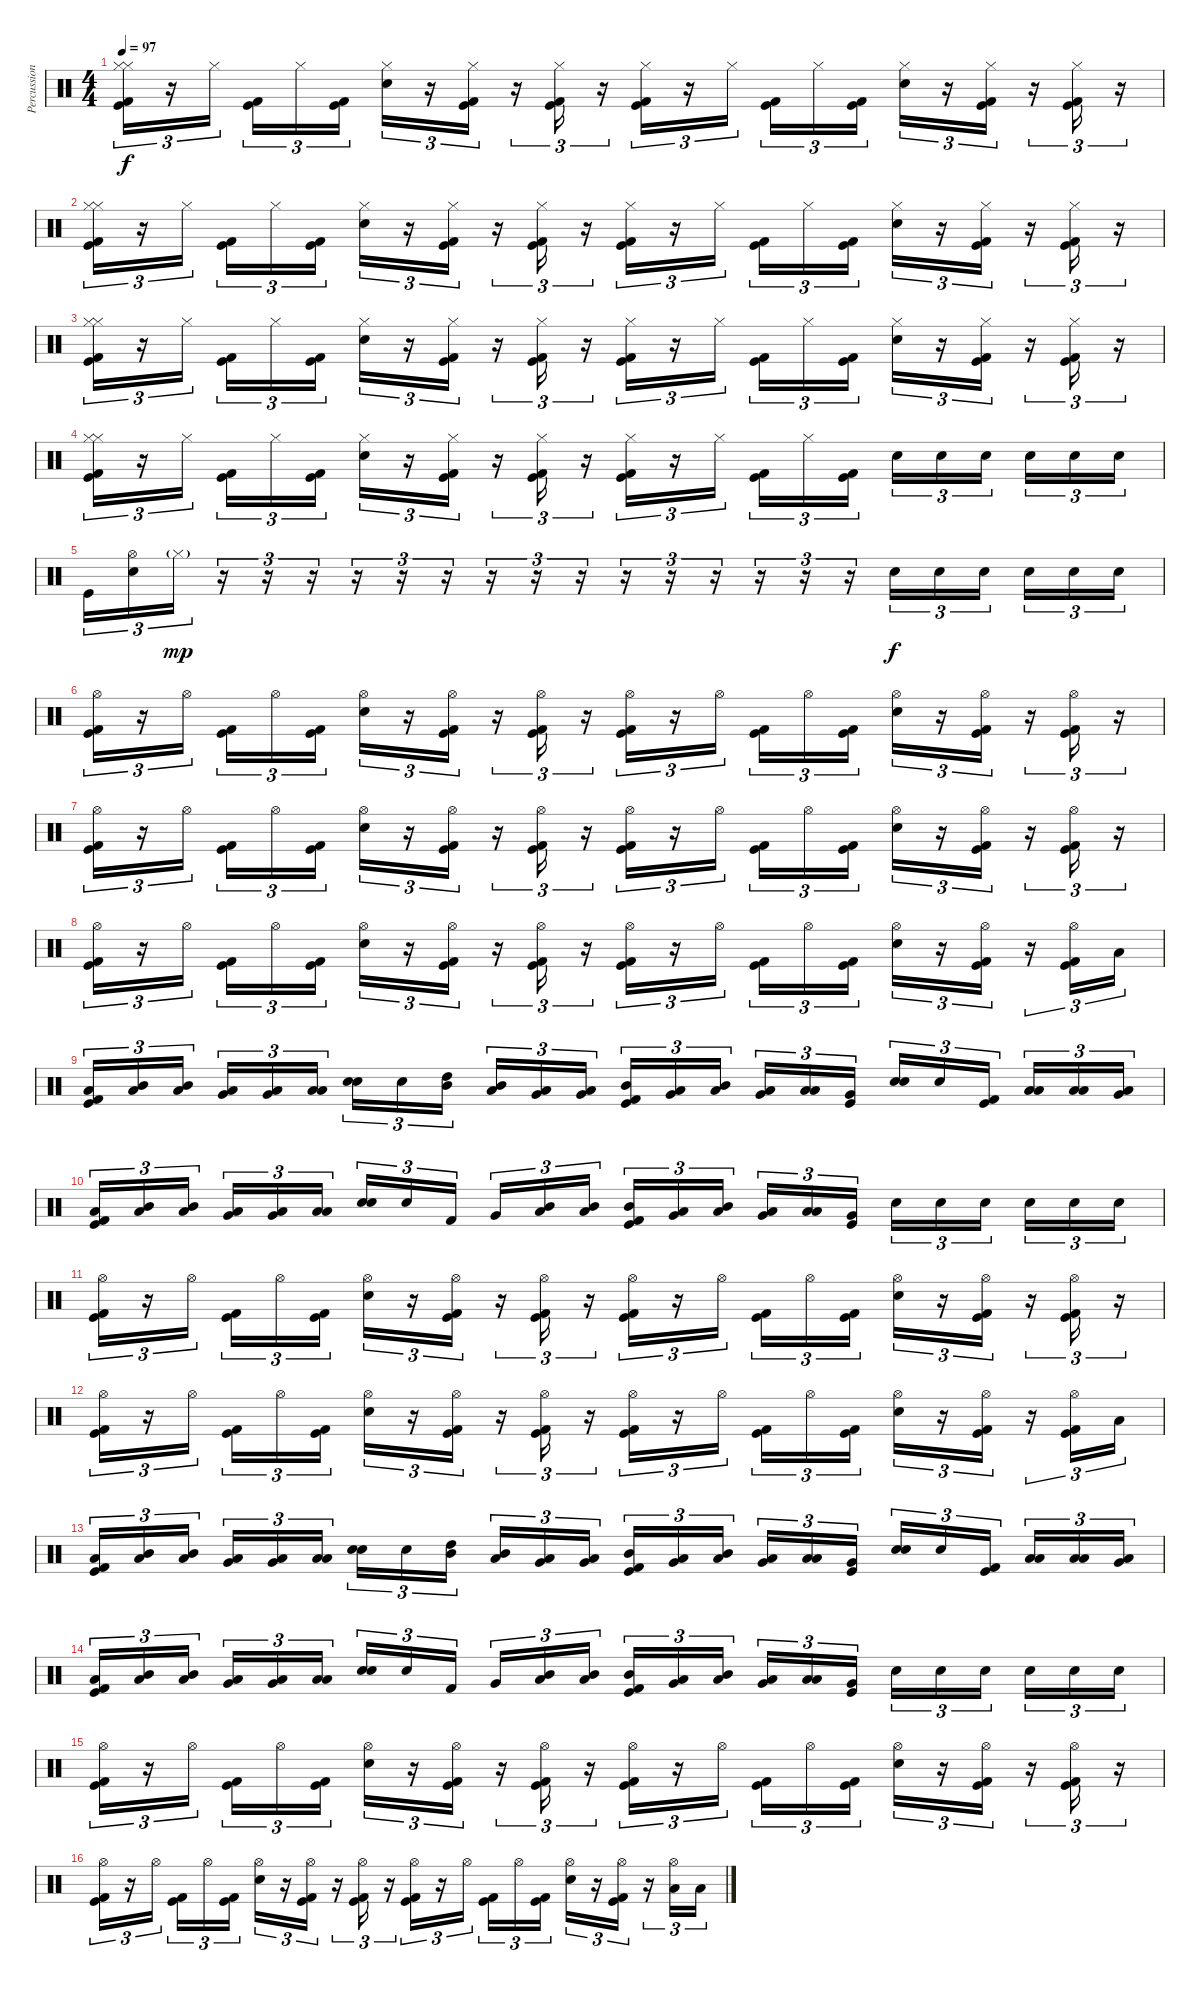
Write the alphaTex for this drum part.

\track ("Percussions" "Percussion") {instrument percussion}
\staff {score}
\articulation defaults
\ts (4 4)
\tempo 97
\clef neutral
\ks c
("Hi-Hat (closed)" "Hi-Hat (closed)" "Kick (hit) 2" "Kick (hit)").16{tu (3 2) dy f} r.16{tu (3 2)} "Hi-Hat (closed)".16{tu (3 2)} ("Kick (hit) 2" "Kick (hit)").16{tu (3 2)} "Hi-Hat (closed)".16{tu (3 2)} ("Kick (hit) 2" "Kick (hit)").16{tu (3 2)} ("Hi-Hat (closed)" "Electric Snare (hit)").16{tu (3 2)} r.16{tu (3 2)} ("Hi-Hat (closed)" "Kick (hit)" "Kick (hit) 2").16{tu (3 2)} r.16{tu (3 2)} ("Hi-Hat (closed)" "Kick (hit) 2" "Kick (hit)").16{tu (3 2)} r.16{tu (3 2)} ("Hi-Hat (closed)" "Kick (hit) 2" "Kick (hit)").16{tu (3 2)} r.16{tu (3 2)} "Hi-Hat (closed)".16{tu (3 2)} ("Kick (hit) 2" "Kick (hit)").16{tu (3 2)} "Hi-Hat (closed)".16{tu (3 2)} ("Kick (hit) 2" "Kick (hit)").16{tu (3 2)} ("Hi-Hat (closed)" "Electric Snare (hit)").16{tu (3 2)} r.16{tu (3 2)} ("Hi-Hat (closed)" "Kick (hit) 2" "Kick (hit)").16{tu (3 2)} r.16{tu (3 2)} ("Hi-Hat (closed)" "Kick (hit) 2" "Kick (hit)").16{tu (3 2)} r.16{tu (3 2)} |
("Hi-Hat (closed)" "Hi-Hat (closed)" "Kick (hit) 2" "Kick (hit)").16{tu (3 2)} r.16{tu (3 2)} "Hi-Hat (closed)".16{tu (3 2)} ("Kick (hit) 2" "Kick (hit)").16{tu (3 2)} "Hi-Hat (closed)".16{tu (3 2)} ("Kick (hit) 2" "Kick (hit)").16{tu (3 2)} ("Hi-Hat (closed)" "Electric Snare (hit)").16{tu (3 2)} r.16{tu (3 2)} ("Hi-Hat (closed)" "Kick (hit)" "Kick (hit) 2").16{tu (3 2)} r.16{tu (3 2)} ("Hi-Hat (closed)" "Kick (hit) 2" "Kick (hit)").16{tu (3 2)} r.16{tu (3 2)} ("Hi-Hat (closed)" "Kick (hit) 2" "Kick (hit)").16{tu (3 2)} r.16{tu (3 2)} "Hi-Hat (closed)".16{tu (3 2)} ("Kick (hit) 2" "Kick (hit)").16{tu (3 2)} "Hi-Hat (closed)".16{tu (3 2)} ("Kick (hit) 2" "Kick (hit)").16{tu (3 2)} ("Hi-Hat (closed)" "Electric Snare (hit)").16{tu (3 2)} r.16{tu (3 2)} ("Hi-Hat (closed)" "Kick (hit) 2" "Kick (hit)").16{tu (3 2)} r.16{tu (3 2)} ("Hi-Hat (closed)" "Kick (hit) 2" "Kick (hit)").16{tu (3 2)} r.16{tu (3 2)} |
("Hi-Hat (closed)" "Hi-Hat (closed)" "Kick (hit) 2" "Kick (hit)").16{tu (3 2)} r.16{tu (3 2)} "Hi-Hat (closed)".16{tu (3 2)} ("Kick (hit) 2" "Kick (hit)").16{tu (3 2)} "Hi-Hat (closed)".16{tu (3 2)} ("Kick (hit) 2" "Kick (hit)").16{tu (3 2)} ("Hi-Hat (closed)" "Electric Snare (hit)").16{tu (3 2)} r.16{tu (3 2)} ("Hi-Hat (closed)" "Kick (hit)" "Kick (hit) 2").16{tu (3 2)} r.16{tu (3 2)} ("Hi-Hat (closed)" "Kick (hit) 2" "Kick (hit)").16{tu (3 2)} r.16{tu (3 2)} ("Hi-Hat (closed)" "Kick (hit) 2" "Kick (hit)").16{tu (3 2)} r.16{tu (3 2)} "Hi-Hat (closed)".16{tu (3 2)} ("Kick (hit) 2" "Kick (hit)").16{tu (3 2)} "Hi-Hat (closed)".16{tu (3 2)} ("Kick (hit) 2" "Kick (hit)").16{tu (3 2)} ("Hi-Hat (closed)" "Electric Snare (hit)").16{tu (3 2)} r.16{tu (3 2)} ("Hi-Hat (closed)" "Kick (hit) 2" "Kick (hit)").16{tu (3 2)} r.16{tu (3 2)} ("Hi-Hat (closed)" "Kick (hit) 2" "Kick (hit)").16{tu (3 2)} r.16{tu (3 2)} |
("Hi-Hat (closed)" "Hi-Hat (closed)" "Kick (hit) 2" "Kick (hit)").16{tu (3 2)} r.16{tu (3 2)} "Hi-Hat (closed)".16{tu (3 2)} ("Kick (hit) 2" "Kick (hit)").16{tu (3 2)} "Hi-Hat (closed)".16{tu (3 2)} ("Kick (hit) 2" "Kick (hit)").16{tu (3 2)} ("Hi-Hat (closed)" "Electric Snare (hit)").16{tu (3 2)} r.16{tu (3 2)} ("Hi-Hat (closed)" "Kick (hit)" "Kick (hit) 2").16{tu (3 2)} r.16{tu (3 2)} ("Hi-Hat (closed)" "Kick (hit) 2" "Kick (hit)").16{tu (3 2)} r.16{tu (3 2)} ("Hi-Hat (closed)" "Kick (hit) 2" "Kick (hit)").16{tu (3 2)} r.16{tu (3 2)} "Hi-Hat (closed)".16{tu (3 2)} ("Kick (hit) 2" "Kick (hit)").16{tu (3 2)} "Hi-Hat (closed)".16{tu (3 2)} ("Kick (hit) 2" "Kick (hit)").16{tu (3 2)} "Electric Snare (hit)".16{tu (3 2)} "Electric Snare (hit)".16{tu (3 2)} "Electric Snare (hit)".16{tu (3 2)} "Electric Snare (hit)".16{tu (3 2)} "Electric Snare (hit)".16{tu (3 2)} "Electric Snare (hit)".16{tu (3 2)} |
"Kick (hit)".16{tu (3 2)} ("Hi-Hat (open)" "Electric Snare (hit)").16{tu (3 2)} "Hi-Hat (closed)"{g}.16{tu (3 2) dy mp} r.16{tu (3 2)} r.16{tu (3 2)} r.16{tu (3 2)} r.16{tu (3 2)} r.16{tu (3 2)} r.16{tu (3 2)} r.16{tu (3 2)} r.16{tu (3 2)} r.16{tu (3 2)} r.16{tu (3 2)} r.16{tu (3 2)} r.16{tu (3 2)} r.16{tu (3 2)} r.16{tu (3 2)} r.16{tu (3 2)} "Electric Snare (hit)".16{tu (3 2) dy f} "Electric Snare (hit)".16{tu (3 2)} "Electric Snare (hit)".16{tu (3 2)} "Electric Snare (hit)".16{tu (3 2)} "Electric Snare (hit)".16{tu (3 2)} "Electric Snare (hit)".16{tu (3 2)} |
("Hi-Hat (open)" "Kick (hit) 2" "Kick (hit)").16{tu (3 2)} r.16{tu (3 2)} "Hi-Hat (open)".16{tu (3 2)} ("Kick (hit) 2" "Kick (hit)").16{tu (3 2)} "Hi-Hat (open)".16{tu (3 2)} ("Kick (hit) 2" "Kick (hit)").16{tu (3 2)} ("Hi-Hat (open)" "Electric Snare (hit)").16{tu (3 2)} r.16{tu (3 2)} ("Hi-Hat (open)" "Kick (hit)" "Kick (hit) 2").16{tu (3 2)} r.16{tu (3 2)} ("Hi-Hat (open)" "Kick (hit) 2" "Kick (hit)").16{tu (3 2)} r.16{tu (3 2)} ("Hi-Hat (open)" "Kick (hit) 2" "Kick (hit)").16{tu (3 2)} r.16{tu (3 2)} "Hi-Hat (open)".16{tu (3 2)} ("Kick (hit) 2" "Kick (hit)").16{tu (3 2)} "Hi-Hat (open)".16{tu (3 2)} ("Kick (hit) 2" "Kick (hit)").16{tu (3 2)} ("Hi-Hat (open)" "Electric Snare (hit)").16{tu (3 2)} r.16{tu (3 2)} ("Hi-Hat (open)" "Kick (hit) 2" "Kick (hit)").16{tu (3 2)} r.16{tu (3 2)} ("Hi-Hat (open)" "Kick (hit) 2" "Kick (hit)").16{tu (3 2)} r.16{tu (3 2)} |
("Hi-Hat (open)" "Kick (hit) 2" "Kick (hit)").16{tu (3 2)} r.16{tu (3 2)} "Hi-Hat (open)".16{tu (3 2)} ("Kick (hit) 2" "Kick (hit)").16{tu (3 2)} "Hi-Hat (open)".16{tu (3 2)} ("Kick (hit) 2" "Kick (hit)").16{tu (3 2)} ("Hi-Hat (open)" "Electric Snare (hit)").16{tu (3 2)} r.16{tu (3 2)} ("Hi-Hat (open)" "Kick (hit)" "Kick (hit) 2").16{tu (3 2)} r.16{tu (3 2)} ("Hi-Hat (open)" "Kick (hit) 2" "Kick (hit)").16{tu (3 2)} r.16{tu (3 2)} ("Hi-Hat (open)" "Kick (hit) 2" "Kick (hit)").16{tu (3 2)} r.16{tu (3 2)} "Hi-Hat (open)".16{tu (3 2)} ("Kick (hit) 2" "Kick (hit)").16{tu (3 2)} "Hi-Hat (open)".16{tu (3 2)} ("Kick (hit) 2" "Kick (hit)").16{tu (3 2)} ("Hi-Hat (open)" "Electric Snare (hit)").16{tu (3 2)} r.16{tu (3 2)} ("Hi-Hat (open)" "Kick (hit) 2" "Kick (hit)").16{tu (3 2)} r.16{tu (3 2)} ("Hi-Hat (open)" "Kick (hit) 2" "Kick (hit)").16{tu (3 2)} r.16{tu (3 2)} |
("Hi-Hat (open)" "Kick (hit) 2" "Kick (hit)").16{tu (3 2)} r.16{tu (3 2)} "Hi-Hat (open)".16{tu (3 2)} ("Kick (hit) 2" "Kick (hit)").16{tu (3 2)} "Hi-Hat (open)".16{tu (3 2)} ("Kick (hit) 2" "Kick (hit)").16{tu (3 2)} ("Hi-Hat (open)" "Electric Snare (hit)").16{tu (3 2)} r.16{tu (3 2)} ("Hi-Hat (open)" "Kick (hit)" "Kick (hit) 2").16{tu (3 2)} r.16{tu (3 2)} ("Hi-Hat (open)" "Kick (hit) 2" "Kick (hit)").16{tu (3 2)} r.16{tu (3 2)} ("Hi-Hat (open)" "Kick (hit) 2" "Kick (hit)").16{tu (3 2)} r.16{tu (3 2)} "Hi-Hat (open)".16{tu (3 2)} ("Kick (hit) 2" "Kick (hit)").16{tu (3 2)} "Hi-Hat (open)".16{tu (3 2)} ("Kick (hit) 2" "Kick (hit)").16{tu (3 2)} ("Hi-Hat (open)" "Electric Snare (hit)").16{tu (3 2)} r.16{tu (3 2)} ("Hi-Hat (open)" "Kick (hit) 2" "Kick (hit)").16{tu (3 2)} r.16{tu (3 2)} ("Hi-Hat (open)" "Kick (hit) 2" "Kick (hit)").16{tu (3 2)} "Low Tom (hit)".16{tu (3 2)} |
("Kick (hit) 2" "Kick (hit)" "Low Tom (hit)").16{tu (3 2)} ("Mid Tom (hit)" "Low Tom (hit)").16{tu (3 2)} ("Low Tom (hit)" "Mid Tom (hit)").16{tu (3 2)} ("Very Low Tom (hit)" "Low Tom (hit)").16{tu (3 2)} ("Low Floor Tom (hit)" "Very Low Tom (hit)").16{tu (3 2)} ("Low Tom (hit)" "Low Tom (hit)").16{tu (3 2)} ("Electric Snare (hit)" "Electric Snare (hit)").16{tu (3 2)} "Electric Snare (hit)".16{tu (3 2)} ("Mid Tom (hit)" "High Tom (hit)").16{tu (3 2)} ("Low Tom (hit)" "Mid Tom (hit)").16{tu (3 2)} ("Very Low Tom (hit)" "Low Tom (hit)").16{tu (3 2)} ("Very Low Tom (hit)" "Low Tom (hit)").16{tu (3 2)} ("Kick (hit)" "Kick (hit) 2" "Mid Tom (hit)").16{tu (3 2)} ("Very Low Tom (hit)" "Low Tom (hit)").16{tu (3 2)} ("Low Tom (hit)" "Mid Tom (hit)").16{tu (3 2)} ("Low Floor Tom (hit)" "Very Low Tom (hit)").16{tu (3 2)} ("Low Floor Tom (hit)" "Low Tom (hit)").16{tu (3 2)} ("Very Low Tom (hit)" "Kick (hit)").16{tu (3 2)} ("Electric Snare (hit)" "Electric Snare (hit)").16{tu (3 2)} "Electric Snare (hit)".16{tu (3 2)} ("Kick (hit) 2" "Kick (hit)").16{tu (3 2)} ("Low Floor Tom (hit)" "Low Tom (hit)").16{tu (3 2)} ("Low Floor Tom (hit)" "Low Tom (hit)").16{tu (3 2)} ("Low Tom (hit)" "Very Low Tom (hit)").16{tu (3 2)} |
("Kick (hit) 2" "Kick (hit)" "Low Tom (hit)").16{tu (3 2)} ("Mid Tom (hit)" "Low Tom (hit)").16{tu (3 2)} ("Low Tom (hit)" "Mid Tom (hit)").16{tu (3 2)} ("Very Low Tom (hit)" "Low Tom (hit)").16{tu (3 2)} ("Low Floor Tom (hit)" "Very Low Tom (hit)").16{tu (3 2)} ("Low Tom (hit)" "Low Tom (hit)").16{tu (3 2)} ("Electric Snare (hit)" "Electric Snare (hit)").16{tu (3 2)} "Electric Snare (hit)".16{tu (3 2)} "Kick (hit) 2".16{tu (3 2)} "Very Low Tom (hit)".16{tu (3 2)} ("Mid Tom (hit)" "Low Tom (hit)").16{tu (3 2)} ("Mid Tom (hit)" "Low Tom (hit)").16{tu (3 2)} ("Kick (hit)" "Kick (hit) 2" "Mid Tom (hit)").16{tu (3 2)} ("Very Low Tom (hit)" "Low Tom (hit)").16{tu (3 2)} ("Low Tom (hit)" "Mid Tom (hit)").16{tu (3 2)} ("Low Floor Tom (hit)" "Very Low Tom (hit)").16{tu (3 2)} ("Low Floor Tom (hit)" "Low Tom (hit)").16{tu (3 2)} ("Very Low Tom (hit)" "Kick (hit)").16{tu (3 2)} "Electric Snare (hit)".16{tu (3 2)} "Electric Snare (hit)".16{tu (3 2)} "Electric Snare (hit)".16{tu (3 2)} "Electric Snare (hit)".16{tu (3 2)} "Electric Snare (hit)".16{tu (3 2)} "Electric Snare (hit)".16{tu (3 2)} |
("Hi-Hat (open)" "Kick (hit) 2" "Kick (hit)").16{tu (3 2)} r.16{tu (3 2)} "Hi-Hat (open)".16{tu (3 2)} ("Kick (hit) 2" "Kick (hit)").16{tu (3 2)} "Hi-Hat (open)".16{tu (3 2)} ("Kick (hit) 2" "Kick (hit)").16{tu (3 2)} ("Hi-Hat (open)" "Electric Snare (hit)").16{tu (3 2)} r.16{tu (3 2)} ("Hi-Hat (open)" "Kick (hit)" "Kick (hit) 2").16{tu (3 2)} r.16{tu (3 2)} ("Hi-Hat (open)" "Kick (hit) 2" "Kick (hit)").16{tu (3 2)} r.16{tu (3 2)} ("Hi-Hat (open)" "Kick (hit) 2" "Kick (hit)").16{tu (3 2)} r.16{tu (3 2)} "Hi-Hat (open)".16{tu (3 2)} ("Kick (hit) 2" "Kick (hit)").16{tu (3 2)} "Hi-Hat (open)".16{tu (3 2)} ("Kick (hit) 2" "Kick (hit)").16{tu (3 2)} ("Hi-Hat (open)" "Electric Snare (hit)").16{tu (3 2)} r.16{tu (3 2)} ("Hi-Hat (open)" "Kick (hit) 2" "Kick (hit)").16{tu (3 2)} r.16{tu (3 2)} ("Hi-Hat (open)" "Kick (hit) 2" "Kick (hit)").16{tu (3 2)} r.16{tu (3 2)} |
("Hi-Hat (open)" "Kick (hit) 2" "Kick (hit)").16{tu (3 2)} r.16{tu (3 2)} "Hi-Hat (open)".16{tu (3 2)} ("Kick (hit) 2" "Kick (hit)").16{tu (3 2)} "Hi-Hat (open)".16{tu (3 2)} ("Kick (hit) 2" "Kick (hit)").16{tu (3 2)} ("Hi-Hat (open)" "Electric Snare (hit)").16{tu (3 2)} r.16{tu (3 2)} ("Hi-Hat (open)" "Kick (hit)" "Kick (hit) 2").16{tu (3 2)} r.16{tu (3 2)} ("Hi-Hat (open)" "Kick (hit) 2" "Kick (hit)").16{tu (3 2)} r.16{tu (3 2)} ("Hi-Hat (open)" "Kick (hit) 2" "Kick (hit)").16{tu (3 2)} r.16{tu (3 2)} "Hi-Hat (open)".16{tu (3 2)} ("Kick (hit) 2" "Kick (hit)").16{tu (3 2)} "Hi-Hat (open)".16{tu (3 2)} ("Kick (hit) 2" "Kick (hit)").16{tu (3 2)} ("Hi-Hat (open)" "Electric Snare (hit)").16{tu (3 2)} r.16{tu (3 2)} ("Hi-Hat (open)" "Kick (hit) 2" "Kick (hit)").16{tu (3 2)} r.16{tu (3 2)} ("Hi-Hat (open)" "Kick (hit) 2" "Kick (hit)").16{tu (3 2)} "Low Tom (hit)".16{tu (3 2)} |
("Kick (hit) 2" "Kick (hit)" "Low Tom (hit)").16{tu (3 2)} ("Mid Tom (hit)" "Low Tom (hit)").16{tu (3 2)} ("Low Tom (hit)" "Mid Tom (hit)").16{tu (3 2)} ("Very Low Tom (hit)" "Low Tom (hit)").16{tu (3 2)} ("Low Floor Tom (hit)" "Very Low Tom (hit)").16{tu (3 2)} ("Low Tom (hit)" "Low Tom (hit)").16{tu (3 2)} ("Electric Snare (hit)" "Electric Snare (hit)").16{tu (3 2)} "Electric Snare (hit)".16{tu (3 2)} ("Mid Tom (hit)" "High Tom (hit)").16{tu (3 2)} ("Low Tom (hit)" "Mid Tom (hit)").16{tu (3 2)} ("Very Low Tom (hit)" "Low Tom (hit)").16{tu (3 2)} ("Very Low Tom (hit)" "Low Tom (hit)").16{tu (3 2)} ("Kick (hit)" "Kick (hit) 2" "Mid Tom (hit)").16{tu (3 2)} ("Very Low Tom (hit)" "Low Tom (hit)").16{tu (3 2)} ("Low Tom (hit)" "Mid Tom (hit)").16{tu (3 2)} ("Low Floor Tom (hit)" "Very Low Tom (hit)").16{tu (3 2)} ("Low Floor Tom (hit)" "Low Tom (hit)").16{tu (3 2)} ("Very Low Tom (hit)" "Kick (hit)").16{tu (3 2)} ("Electric Snare (hit)" "Electric Snare (hit)").16{tu (3 2)} "Electric Snare (hit)".16{tu (3 2)} ("Kick (hit) 2" "Kick (hit)").16{tu (3 2)} ("Low Floor Tom (hit)" "Low Tom (hit)").16{tu (3 2)} ("Low Floor Tom (hit)" "Low Tom (hit)").16{tu (3 2)} ("Low Tom (hit)" "Very Low Tom (hit)").16{tu (3 2)} |
("Kick (hit) 2" "Kick (hit)" "Low Tom (hit)").16{tu (3 2)} ("Mid Tom (hit)" "Low Tom (hit)").16{tu (3 2)} ("Low Tom (hit)" "Mid Tom (hit)").16{tu (3 2)} ("Very Low Tom (hit)" "Low Tom (hit)").16{tu (3 2)} ("Low Floor Tom (hit)" "Very Low Tom (hit)").16{tu (3 2)} ("Low Tom (hit)" "Low Tom (hit)").16{tu (3 2)} ("Electric Snare (hit)" "Electric Snare (hit)").16{tu (3 2)} "Electric Snare (hit)".16{tu (3 2)} "Kick (hit) 2".16{tu (3 2)} "Very Low Tom (hit)".16{tu (3 2)} ("Mid Tom (hit)" "Low Tom (hit)").16{tu (3 2)} ("Mid Tom (hit)" "Low Tom (hit)").16{tu (3 2)} ("Kick (hit)" "Kick (hit) 2" "Mid Tom (hit)").16{tu (3 2)} ("Very Low Tom (hit)" "Low Tom (hit)").16{tu (3 2)} ("Low Tom (hit)" "Mid Tom (hit)").16{tu (3 2)} ("Low Floor Tom (hit)" "Very Low Tom (hit)").16{tu (3 2)} ("Low Floor Tom (hit)" "Low Tom (hit)").16{tu (3 2)} ("Very Low Tom (hit)" "Kick (hit)").16{tu (3 2)} "Electric Snare (hit)".16{tu (3 2)} "Electric Snare (hit)".16{tu (3 2)} "Electric Snare (hit)".16{tu (3 2)} "Electric Snare (hit)".16{tu (3 2)} "Electric Snare (hit)".16{tu (3 2)} "Electric Snare (hit)".16{tu (3 2)} |
("Hi-Hat (open)" "Kick (hit) 2" "Kick (hit)").16{tu (3 2)} r.16{tu (3 2)} "Hi-Hat (open)".16{tu (3 2)} ("Kick (hit) 2" "Kick (hit)").16{tu (3 2)} "Hi-Hat (open)".16{tu (3 2)} ("Kick (hit) 2" "Kick (hit)").16{tu (3 2)} ("Hi-Hat (open)" "Electric Snare (hit)").16{tu (3 2)} r.16{tu (3 2)} ("Hi-Hat (open)" "Kick (hit)" "Kick (hit) 2").16{tu (3 2)} r.16{tu (3 2)} ("Hi-Hat (open)" "Kick (hit) 2" "Kick (hit)").16{tu (3 2)} r.16{tu (3 2)} ("Hi-Hat (open)" "Kick (hit) 2" "Kick (hit)").16{tu (3 2)} r.16{tu (3 2)} "Hi-Hat (open)".16{tu (3 2)} ("Kick (hit) 2" "Kick (hit)").16{tu (3 2)} "Hi-Hat (open)".16{tu (3 2)} ("Kick (hit) 2" "Kick (hit)").16{tu (3 2)} ("Hi-Hat (open)" "Electric Snare (hit)").16{tu (3 2)} r.16{tu (3 2)} ("Hi-Hat (open)" "Kick (hit) 2" "Kick (hit)").16{tu (3 2)} r.16{tu (3 2)} ("Hi-Hat (open)" "Kick (hit) 2" "Kick (hit)").16{tu (3 2)} r.16{tu (3 2)} |
("Hi-Hat (open)" "Kick (hit) 2" "Kick (hit)").16{tu (3 2)} r.16{tu (3 2)} "Hi-Hat (open)".16{tu (3 2)} ("Kick (hit) 2" "Kick (hit)").16{tu (3 2)} "Hi-Hat (open)".16{tu (3 2)} ("Kick (hit) 2" "Kick (hit)").16{tu (3 2)} ("Hi-Hat (open)" "Electric Snare (hit)").16{tu (3 2)} r.16{tu (3 2)} ("Hi-Hat (open)" "Kick (hit)" "Kick (hit) 2").16{tu (3 2)} r.16{tu (3 2)} ("Hi-Hat (open)" "Kick (hit) 2" "Kick (hit)").16{tu (3 2)} r.16{tu (3 2)} ("Hi-Hat (open)" "Kick (hit) 2" "Kick (hit)").16{tu (3 2)} r.16{tu (3 2)} "Hi-Hat (open)".16{tu (3 2)} ("Kick (hit) 2" "Kick (hit)").16{tu (3 2)} "Hi-Hat (open)".16{tu (3 2)} ("Kick (hit) 2" "Kick (hit)").16{tu (3 2)} ("Hi-Hat (open)" "Electric Snare (hit)").16{tu (3 2)} r.16{tu (3 2)} ("Hi-Hat (open)" "Kick (hit) 2" "Kick (hit)").16{tu (3 2)} r.16{tu (3 2)} ("Hi-Hat (open)" "Low Tom (hit)").16{tu (3 2)} "Low Tom (hit)".16{tu (3 2)}
